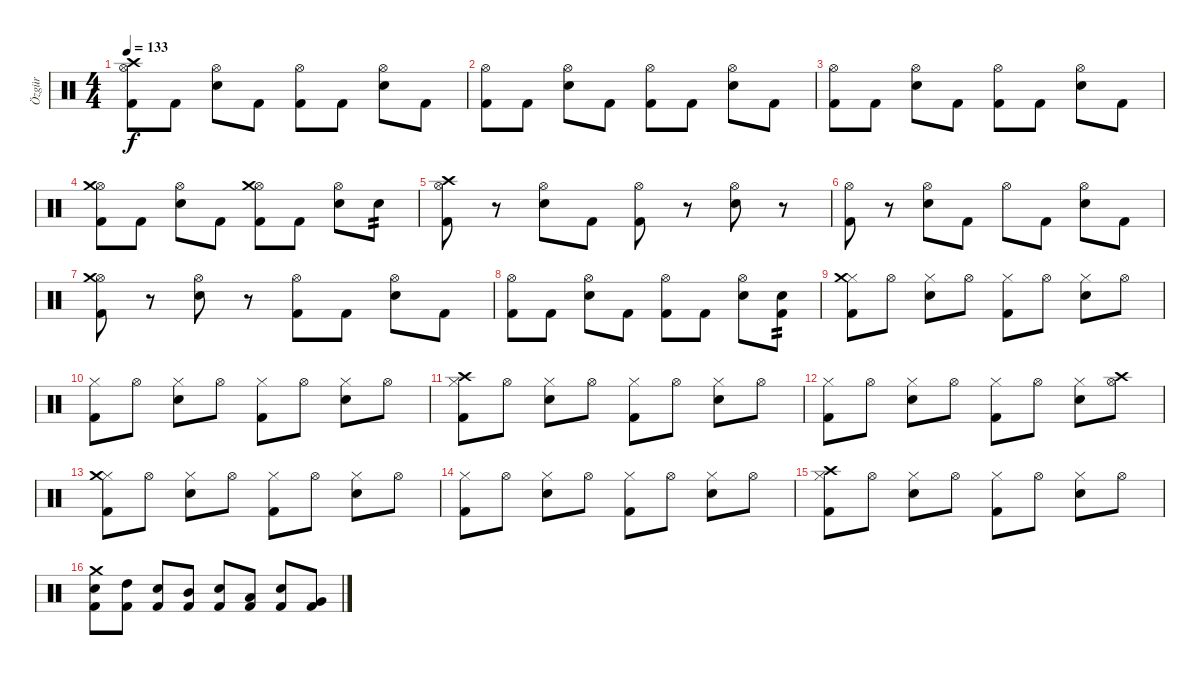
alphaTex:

\track ("Özgür" "Özgür") {instrument percussion}
\staff {score}
\articulation defaults
\ts (4 4)
\tempo 133
\clef neutral
\ks c
("Kick (hit) 2" "Hi-Hat (open)" "Crash high (hit)").8{dy f} "Kick (hit) 2".8 ("Snare (hit) 2" "Hi-Hat (open)").8 "Kick (hit) 2".8 ("Kick (hit) 2" "Hi-Hat (open)").8 "Kick (hit) 2".8 ("Snare (hit) 2" "Hi-Hat (open)").8 "Kick (hit) 2".8 |
("Kick (hit) 2" "Hi-Hat (open)").8 "Kick (hit) 2".8 ("Snare (hit) 2" "Hi-Hat (open)").8 "Kick (hit) 2".8 ("Kick (hit) 2" "Hi-Hat (open)").8 "Kick (hit) 2".8 ("Snare (hit) 2" "Hi-Hat (open)").8 "Kick (hit) 2".8 |
("Kick (hit) 2" "Hi-Hat (open)").8 "Kick (hit) 2".8 ("Snare (hit) 2" "Hi-Hat (open)").8 "Kick (hit) 2".8 ("Kick (hit) 2" "Hi-Hat (open)").8 "Kick (hit) 2".8 ("Snare (hit) 2" "Hi-Hat (open)").8 "Kick (hit) 2".8 |
("Kick (hit) 2" "Hi-Hat (open)" "Crash medium (hit)").8 "Kick (hit) 2".8 ("Snare (hit) 2" "Hi-Hat (open)").8 "Kick (hit) 2".8 ("Kick (hit) 2" "Hi-Hat (open)" "Crash medium (hit)").8 "Kick (hit) 2".8 ("Snare (hit) 2" "Hi-Hat (open)").8 "Snare (hit) 2".8{tp 2} |
("Kick (hit) 2" "Hi-Hat (open)" "Crash high (hit)").8 r.8 ("Snare (hit) 2" "Hi-Hat (open)").8 "Kick (hit) 2".8 ("Kick (hit) 2" "Hi-Hat (open)").8 r.8 ("Snare (hit) 2" "Hi-Hat (open)").8 r.8 |
("Kick (hit) 2" "Hi-Hat (open)").8 r.8 ("Snare (hit) 2" "Hi-Hat (open)").8 "Kick (hit) 2".8 "Hi-Hat (open)".8 "Kick (hit) 2".8 ("Snare (hit) 2" "Hi-Hat (open)").8 "Kick (hit) 2".8 |
("Kick (hit) 2" "Hi-Hat (open)" "Crash medium (hit)").8 r.8 ("Snare (hit) 2" "Hi-Hat (open)").8 r.8 ("Kick (hit) 2" "Hi-Hat (open)").8 "Kick (hit) 2".8 ("Snare (hit) 2" "Hi-Hat (open)").8 "Kick (hit) 2".8 |
("Kick (hit) 2" "Hi-Hat (open)").8 "Kick (hit) 2".8 ("Snare (hit) 2" "Hi-Hat (open)").8 "Kick (hit) 2".8 ("Kick (hit) 2" "Hi-Hat (open)").8 "Kick (hit) 2".8 ("Snare (hit) 2" "Hi-Hat (open)").8 ("Kick (hit) 2" "Snare (hit) 2").8{tp 2} |
("Kick (hit) 2" "Hi-Hat (closed)" "Crash medium (hit)").8 "Hi-Hat (open)".8 ("Snare (hit) 2" "Hi-Hat (closed)").8 "Hi-Hat (open)".8 ("Kick (hit) 2" "Hi-Hat (closed)").8 "Hi-Hat (open)".8 ("Snare (hit) 2" "Hi-Hat (closed)").8 "Hi-Hat (open)".8 |
("Kick (hit) 2" "Hi-Hat (closed)").8 "Hi-Hat (open)".8 ("Snare (hit) 2" "Hi-Hat (closed)").8 "Hi-Hat (open)".8 ("Kick (hit) 2" "Hi-Hat (closed)").8 "Hi-Hat (open)".8 ("Snare (hit) 2" "Hi-Hat (closed)").8 "Hi-Hat (open)".8 |
("Kick (hit) 2" "Hi-Hat (closed)" "Crash high (hit)").8 "Hi-Hat (open)".8 ("Snare (hit) 2" "Hi-Hat (closed)").8 "Hi-Hat (open)".8 ("Kick (hit) 2" "Hi-Hat (closed)").8 "Hi-Hat (open)".8 ("Snare (hit) 2" "Hi-Hat (closed)").8 "Hi-Hat (open)".8 |
("Kick (hit) 2" "Hi-Hat (closed)").8 "Hi-Hat (open)".8 ("Snare (hit) 2" "Hi-Hat (closed)").8 "Hi-Hat (open)".8 ("Kick (hit) 2" "Hi-Hat (closed)").8 "Hi-Hat (open)".8 ("Snare (hit) 2" "Hi-Hat (closed)").8 ("Hi-Hat (open)" "Crash high (hit)").8 |
("Kick (hit) 2" "Hi-Hat (closed)" "Crash medium (hit)").8 "Hi-Hat (open)".8 ("Snare (hit) 2" "Hi-Hat (closed)").8 "Hi-Hat (open)".8 ("Kick (hit) 2" "Hi-Hat (closed)").8 "Hi-Hat (open)".8 ("Snare (hit) 2" "Hi-Hat (closed)").8 "Hi-Hat (open)".8 |
("Kick (hit) 2" "Hi-Hat (closed)").8 "Hi-Hat (open)".8 ("Snare (hit) 2" "Hi-Hat (closed)").8 "Hi-Hat (open)".8 ("Kick (hit) 2" "Hi-Hat (closed)").8 "Hi-Hat (open)".8 ("Snare (hit) 2" "Hi-Hat (closed)").8 "Hi-Hat (open)".8 |
("Kick (hit) 2" "Hi-Hat (closed)" "Crash high (hit)").8 "Hi-Hat (open)".8 ("Snare (hit) 2" "Hi-Hat (closed)").8 "Hi-Hat (open)".8 ("Kick (hit) 2" "Hi-Hat (closed)").8 "Hi-Hat (open)".8 ("Snare (hit) 2" "Hi-Hat (closed)").8 "Hi-Hat (open)".8 |
("Kick (hit) 2" "Snare (hit) 2" "Crash medium (hit)").8 ("Kick (hit) 2" "High Tom (hit)").8 ("Kick (hit) 2" "Snare (hit) 2").8 ("Kick (hit) 2" "Mid Tom (hit)").8 ("Kick (hit) 2" "Snare (hit) 2").8 ("Kick (hit) 2" "Low Tom (hit)").8 ("Kick (hit) 2" "Snare (hit) 2").8 ("Kick (hit) 2" "Very Low Tom (hit)").8
